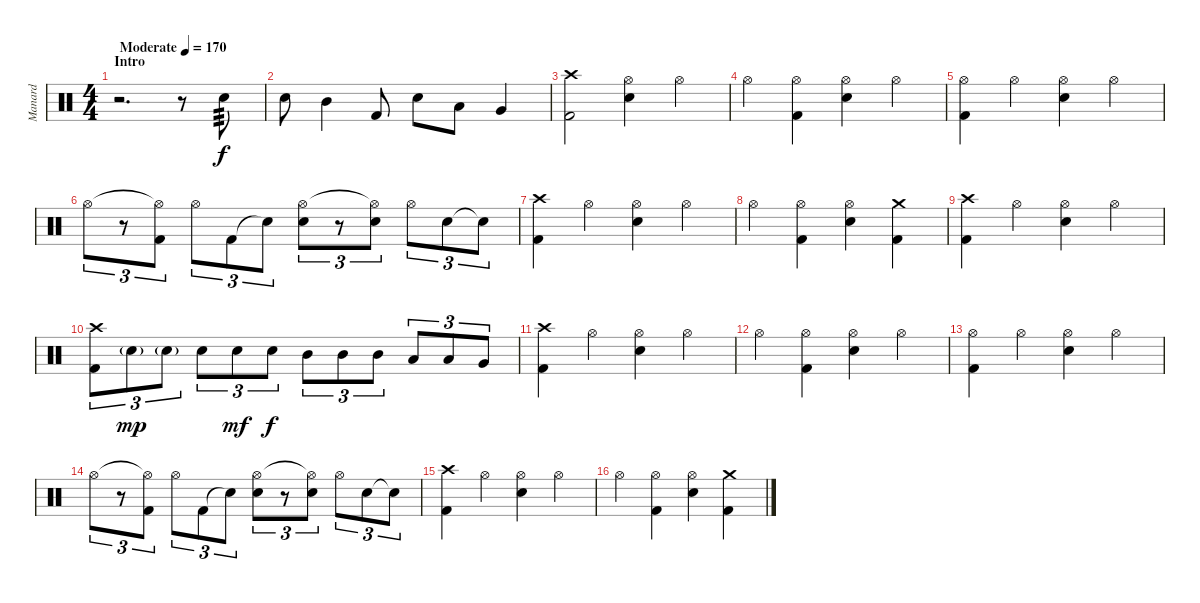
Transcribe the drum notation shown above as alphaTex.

\track ("Manard" "Manard") {instrument percussion}
\staff {score}
\articulation defaults
\ts (4 4)
\section ("" "Intro")
\tempo (170 "Moderate")
\clef neutral
\ks c
r.2{d dy f} r.8 "Snare (hit) 2".8{tp 3} |
"Snare (hit) 2".8 "Mid Tom (hit)".4 "Kick (hit) 2".8 "Snare (hit) 2".8 "Low Tom (hit)".8 "Very Low Tom (hit)".4 |
("Crash high (hit)" "Kick (hit) 2").2 ("Hi-Hat (open)" "Snare (hit) 2").4 "Hi-Hat (open)".4 |
"Hi-Hat (open)".4 ("Hi-Hat (open)" "Kick (hit) 2").4 ("Hi-Hat (open)" "Snare (hit) 2").4 "Hi-Hat (open)".4 |
("Hi-Hat (open)" "Kick (hit) 2").4 "Hi-Hat (open)".4 ("Hi-Hat (open)" "Snare (hit) 2").4 "Hi-Hat (open)".4 |
"Hi-Hat (open)".8{tu (3 2)} r.8{tu (3 2)} ("Hi-Hat (open)"{t} "Kick (hit) 2").8{tu (3 2)} "Hi-Hat (open)".8{tu (3 2)} "Kick (hit) 2".8{tu (3 2)} "Snare (hit)"{t}.8{tu (3 2)} ("Hi-Hat (open)" "Snare (hit) 2").8{tu (3 2)} r.8{tu (3 2)} ("Hi-Hat (open)"{t} "Snare (hit) 2").8{tu (3 2)} "Hi-Hat (open)".8{tu (3 2)} "Snare (hit) 2".8{tu (3 2)} "Snare (hit)"{t}.8{tu (3 2)} |
("Crash high (hit)" "Kick (hit) 2").4 "Hi-Hat (open)".4 ("Hi-Hat (open)" "Snare (hit) 2").4 "Hi-Hat (open)".4 |
"Hi-Hat (open)".4 ("Hi-Hat (open)" "Kick (hit) 2").4 ("Hi-Hat (open)" "Snare (hit) 2").4 ("Crash medium (hit)" "Kick (hit) 2").4 |
("Crash high (hit)" "Kick (hit) 2").4 "Hi-Hat (open)".4 ("Hi-Hat (open)" "Snare (hit) 2").4 "Hi-Hat (open)".4 |
("Crash high (hit)" "Kick (hit) 2").8{tu (3 2)} "Snare (hit) 2"{g}.8{tu (3 2) dy mp} "Snare (hit) 2"{g}.8{tu (3 2)} "Snare (hit) 2".8{tu (3 2)} "Snare (hit) 2".8{tu (3 2) dy mf} "Snare (hit) 2".8{tu (3 2) dy f} "Mid Tom (hit)".8{tu (3 2)} "Mid Tom (hit)".8{tu (3 2)} "Mid Tom (hit)".8{tu (3 2)} "Low Tom (hit)".8{tu (3 2)} "Low Tom (hit)".8{tu (3 2)} "Very Low Tom (hit)".8{tu (3 2)} |
("Crash high (hit)" "Kick (hit) 2").4 "Hi-Hat (open)".4 ("Hi-Hat (open)" "Snare (hit) 2").4 "Hi-Hat (open)".4 |
"Hi-Hat (open)".4 ("Hi-Hat (open)" "Kick (hit) 2").4 ("Hi-Hat (open)" "Snare (hit) 2").4 "Hi-Hat (open)".4 |
("Hi-Hat (open)" "Kick (hit) 2").4 "Hi-Hat (open)".4 ("Hi-Hat (open)" "Snare (hit) 2").4 "Hi-Hat (open)".4 |
"Hi-Hat (open)".8{tu (3 2)} r.8{tu (3 2)} ("Hi-Hat (open)"{t} "Kick (hit) 2").8{tu (3 2)} "Hi-Hat (open)".8{tu (3 2)} "Kick (hit) 2".8{tu (3 2)} "Snare (hit)"{t}.8{tu (3 2)} ("Hi-Hat (open)" "Snare (hit) 2").8{tu (3 2)} r.8{tu (3 2)} ("Hi-Hat (open)"{t} "Snare (hit) 2").8{tu (3 2)} "Hi-Hat (open)".8{tu (3 2)} "Snare (hit) 2".8{tu (3 2)} "Snare (hit)"{t}.8{tu (3 2)} |
("Crash high (hit)" "Kick (hit) 2").4 "Hi-Hat (open)".4 ("Hi-Hat (open)" "Snare (hit) 2").4 "Hi-Hat (open)".4 |
"Hi-Hat (open)".4 ("Hi-Hat (open)" "Kick (hit) 2").4 ("Hi-Hat (open)" "Snare (hit) 2").4 ("Crash medium (hit)" "Kick (hit) 2").4
